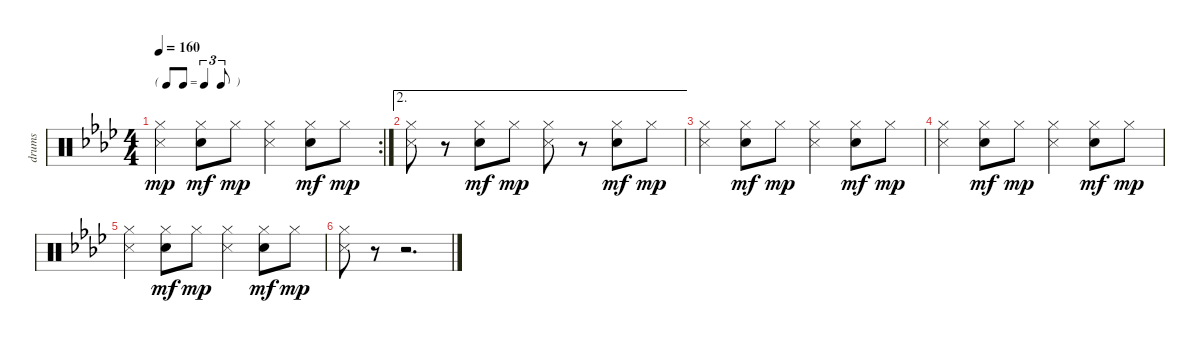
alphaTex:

\track ("drums" "drums") {instrument percussion}
\staff {score}
\articulation defaults
\rc 2
\ts (4 4)
\tf triplet8th
\tempo 160
\clef neutral
\ks ab
("Hi-Hat (closed)" "Snare (side stick) 3").4{dy mp} ("Hi-Hat (closed)" "Snare (hit) 2").8{dy mf} "Hi-Hat (closed)".8{dy mp} ("Hi-Hat (closed)" "Snare (side stick) 3").4 ("Hi-Hat (closed)" "Snare (hit) 2").8{dy mf} "Hi-Hat (closed)".8{dy mp} |
\ae 2
("Hi-Hat (closed)" "Snare (side stick) 3").8 r.8 ("Hi-Hat (closed)" "Snare (hit) 2").8{dy mf} "Hi-Hat (closed)".8{dy mp} ("Hi-Hat (closed)" "Snare (side stick) 3").8 r.8 ("Hi-Hat (closed)" "Snare (hit) 2").8{dy mf} "Hi-Hat (closed)".8{dy mp} |
("Hi-Hat (closed)" "Snare (side stick) 3").4 ("Hi-Hat (closed)" "Snare (hit) 2").8{dy mf} "Hi-Hat (closed)".8{dy mp} ("Hi-Hat (closed)" "Snare (side stick) 3").4 ("Hi-Hat (closed)" "Snare (hit) 2").8{dy mf} "Hi-Hat (closed)".8{dy mp} |
("Hi-Hat (closed)" "Snare (side stick) 3").4 ("Hi-Hat (closed)" "Snare (hit) 2").8{dy mf} "Hi-Hat (closed)".8{dy mp} ("Hi-Hat (closed)" "Snare (side stick) 3").4 ("Hi-Hat (closed)" "Snare (hit) 2").8{dy mf} "Hi-Hat (closed)".8{dy mp} |
("Hi-Hat (closed)" "Snare (side stick) 3").4 ("Hi-Hat (closed)" "Snare (hit) 2").8{dy mf} "Hi-Hat (closed)".8{dy mp} ("Hi-Hat (closed)" "Snare (side stick) 3").4 ("Hi-Hat (closed)" "Snare (hit) 2").8{dy mf} "Hi-Hat (closed)".8{dy mp} |
("Hi-Hat (closed)" "Snare (side stick) 3").8 r.8 r.2{d}
